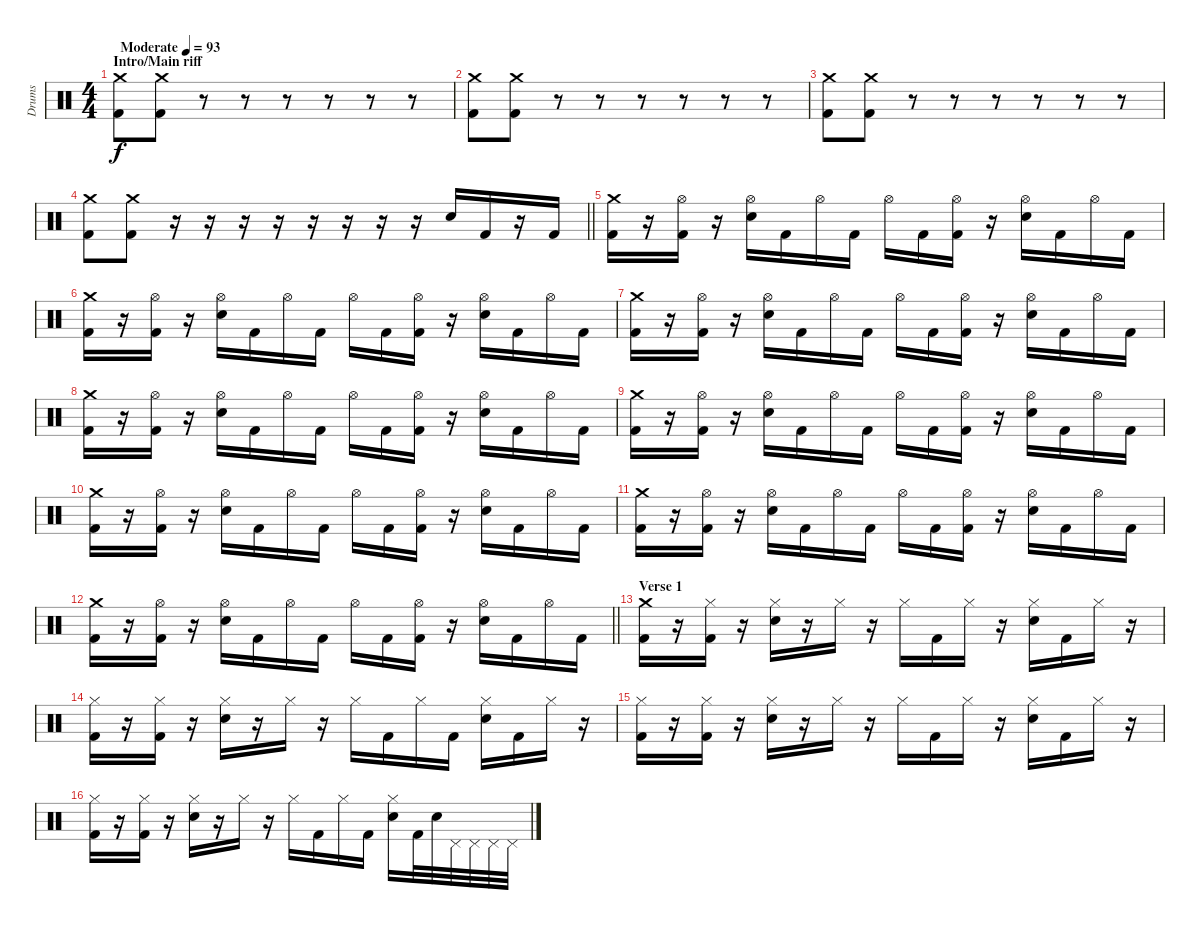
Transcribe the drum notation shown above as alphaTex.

\track ("Drums" "Drums") {instrument percussion}
\staff {score}
\articulation defaults
\ts (4 4)
\section ("" "Intro/Main riff")
\tempo (93 "Moderate")
\clef neutral
\ks c
("Crash medium (hit)" "Kick (hit) 2").8{dy f} ("Crash medium (hit)" "Kick (hit) 2").8 r.8 r.8 r.8 r.8 r.8 r.8 |
("Crash medium (hit)" "Kick (hit) 2").8 ("Crash medium (hit)" "Kick (hit) 2").8 r.8 r.8 r.8 r.8 r.8 r.8 |
("Crash medium (hit)" "Kick (hit) 2").8 ("Crash medium (hit)" "Kick (hit) 2").8 r.8 r.8 r.8 r.8 r.8 r.8 |
\barLineRight lightlight
("Crash medium (hit)" "Kick (hit) 2").8 ("Crash medium (hit)" "Kick (hit) 2").8 r.16 r.16 r.16 r.16 r.16 r.16 r.16 r.16 "Electric Snare (hit)".16 "Kick (hit) 2".16 r.16 "Kick (hit) 2".16 |
\section ("" "")
("Crash medium (hit)" "Kick (hit) 2").16 r.16 ("Hi-Hat (open)" "Kick (hit) 2").16 r.16 ("Hi-Hat (open)" "Electric Snare (hit)").16 "Kick (hit) 2".16 "Hi-Hat (open)".16 "Kick (hit) 2".16 "Hi-Hat (open)".16 "Kick (hit) 2".16 ("Hi-Hat (open)" "Kick (hit) 2").16 r.16 ("Hi-Hat (open)" "Electric Snare (hit)").16 "Kick (hit) 2".16 "Hi-Hat (open)".16 "Kick (hit) 2".16 |
("Crash medium (hit)" "Kick (hit) 2").16 r.16 ("Hi-Hat (open)" "Kick (hit) 2").16 r.16 ("Hi-Hat (open)" "Electric Snare (hit)").16 "Kick (hit) 2".16 "Hi-Hat (open)".16 "Kick (hit) 2".16 "Hi-Hat (open)".16 "Kick (hit) 2".16 ("Hi-Hat (open)" "Kick (hit) 2").16 r.16 ("Hi-Hat (open)" "Electric Snare (hit)").16 "Kick (hit) 2".16 "Hi-Hat (open)".16 "Kick (hit) 2".16 |
("Crash medium (hit)" "Kick (hit) 2").16 r.16 ("Hi-Hat (open)" "Kick (hit) 2").16 r.16 ("Hi-Hat (open)" "Electric Snare (hit)").16 "Kick (hit) 2".16 "Hi-Hat (open)".16 "Kick (hit) 2".16 "Hi-Hat (open)".16 "Kick (hit) 2".16 ("Hi-Hat (open)" "Kick (hit) 2").16 r.16 ("Hi-Hat (open)" "Electric Snare (hit)").16 "Kick (hit) 2".16 "Hi-Hat (open)".16 "Kick (hit) 2".16 |
("Crash medium (hit)" "Kick (hit) 2").16 r.16 ("Hi-Hat (open)" "Kick (hit) 2").16 r.16 ("Hi-Hat (open)" "Electric Snare (hit)").16 "Kick (hit) 2".16 "Hi-Hat (open)".16 "Kick (hit) 2".16 "Hi-Hat (open)".16 "Kick (hit) 2".16 ("Hi-Hat (open)" "Kick (hit) 2").16 r.16 ("Hi-Hat (open)" "Electric Snare (hit)").16 "Kick (hit) 2".16 "Hi-Hat (open)".16 "Kick (hit) 2".16 |
("Crash medium (hit)" "Kick (hit) 2").16 r.16 ("Hi-Hat (open)" "Kick (hit) 2").16 r.16 ("Hi-Hat (open)" "Electric Snare (hit)").16 "Kick (hit) 2".16 "Hi-Hat (open)".16 "Kick (hit) 2".16 "Hi-Hat (open)".16 "Kick (hit) 2".16 ("Hi-Hat (open)" "Kick (hit) 2").16 r.16 ("Hi-Hat (open)" "Electric Snare (hit)").16 "Kick (hit) 2".16 "Hi-Hat (open)".16 "Kick (hit) 2".16 |
("Crash medium (hit)" "Kick (hit) 2").16 r.16 ("Hi-Hat (open)" "Kick (hit) 2").16 r.16 ("Hi-Hat (open)" "Electric Snare (hit)").16 "Kick (hit) 2".16 "Hi-Hat (open)".16 "Kick (hit) 2".16 "Hi-Hat (open)".16 "Kick (hit) 2".16 ("Hi-Hat (open)" "Kick (hit) 2").16 r.16 ("Hi-Hat (open)" "Electric Snare (hit)").16 "Kick (hit) 2".16 "Hi-Hat (open)".16 "Kick (hit) 2".16 |
("Crash medium (hit)" "Kick (hit) 2").16 r.16 ("Hi-Hat (open)" "Kick (hit) 2").16 r.16 ("Hi-Hat (open)" "Electric Snare (hit)").16 "Kick (hit) 2".16 "Hi-Hat (open)".16 "Kick (hit) 2".16 "Hi-Hat (open)".16 "Kick (hit) 2".16 ("Hi-Hat (open)" "Kick (hit) 2").16 r.16 ("Hi-Hat (open)" "Electric Snare (hit)").16 "Kick (hit) 2".16 "Hi-Hat (open)".16 "Kick (hit) 2".16 |
\barLineRight lightlight
("Crash medium (hit)" "Kick (hit) 2").16 r.16 ("Hi-Hat (open)" "Kick (hit) 2").16 r.16 ("Hi-Hat (open)" "Electric Snare (hit)").16 "Kick (hit) 2".16 "Hi-Hat (open)".16 "Kick (hit) 2".16 "Hi-Hat (open)".16 "Kick (hit) 2".16 ("Hi-Hat (open)" "Kick (hit) 2").16 r.16 ("Hi-Hat (open)" "Electric Snare (hit)").16 "Kick (hit) 2".16 "Hi-Hat (open)".16 "Kick (hit) 2".16 |
\section ("" "Verse 1")
("Crash medium (hit)" "Kick (hit) 2").16 r.16 ("Hi-Hat (closed)" "Kick (hit) 2").16 r.16 ("Hi-Hat (closed)" "Electric Snare (hit)").16 r.16 "Hi-Hat (closed)".16 r.16 "Hi-Hat (closed)".16 "Kick (hit) 2".16 "Hi-Hat (closed)".16 r.16 ("Hi-Hat (closed)" "Electric Snare (hit)").16 "Kick (hit) 2".16 "Hi-Hat (closed)".16 r.16 |
("Hi-Hat (closed)" "Kick (hit) 2").16 r.16 ("Hi-Hat (closed)" "Kick (hit) 2").16 r.16 ("Hi-Hat (closed)" "Electric Snare (hit)").16 r.16 "Hi-Hat (closed)".16 r.16 "Hi-Hat (closed)".16 "Kick (hit) 2".16 "Hi-Hat (closed)".16 "Kick (hit) 2".16 ("Hi-Hat (closed)" "Electric Snare (hit)").16 "Kick (hit) 2".16 "Hi-Hat (closed)".16 r.16 |
("Hi-Hat (closed)" "Kick (hit) 2").16 r.16 ("Hi-Hat (closed)" "Kick (hit) 2").16 r.16 ("Hi-Hat (closed)" "Electric Snare (hit)").16 r.16 "Hi-Hat (closed)".16 r.16 "Hi-Hat (closed)".16 "Kick (hit) 2".16 "Hi-Hat (closed)".16 r.16 ("Hi-Hat (closed)" "Electric Snare (hit)").16 "Kick (hit) 2".16 "Hi-Hat (closed)".16 r.16 |
("Hi-Hat (closed)" "Kick (hit) 2").16 r.16 ("Hi-Hat (closed)" "Kick (hit) 2").16 r.16 ("Hi-Hat (closed)" "Electric Snare (hit)").16 r.16 "Hi-Hat (closed)".16 r.16 "Hi-Hat (closed)".16 "Kick (hit) 2".16 "Hi-Hat (closed)".16 "Kick (hit) 2".16 ("Hi-Hat (closed)" "Electric Snare (hit)").16 "Kick (hit) 2".32 "Electric Snare (hit)".32 "Pedal Hi-Hat (hit)".32 "Pedal Hi-Hat (hit)".32 "Pedal Hi-Hat (hit)".32 "Pedal Hi-Hat (hit)".32
